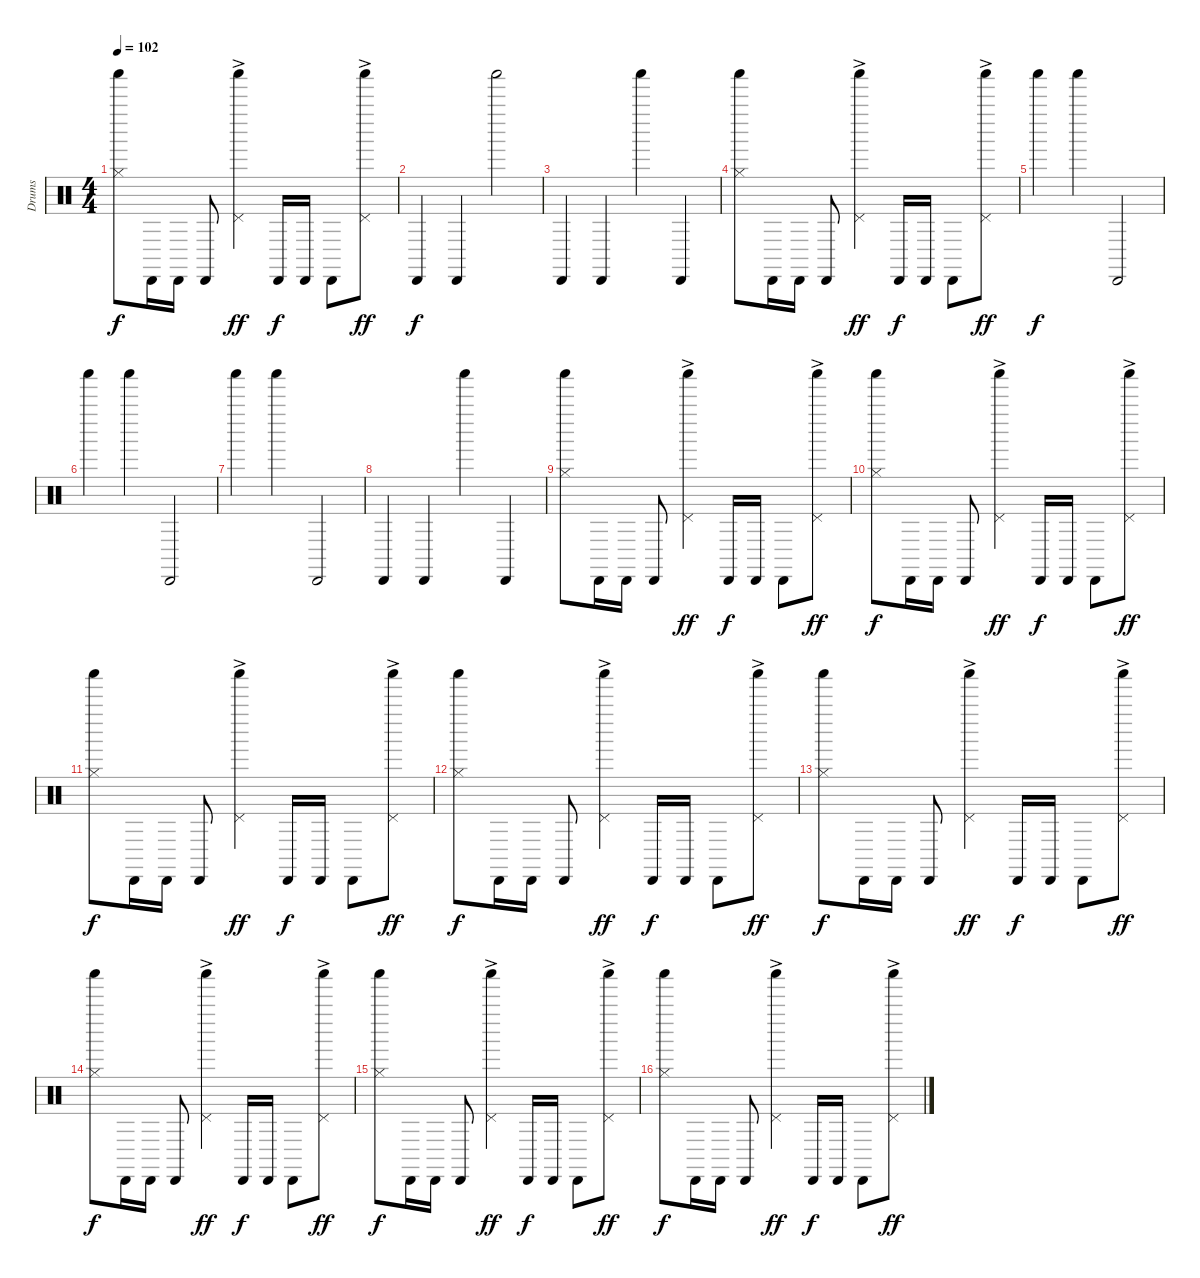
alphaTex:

\track ("Drums" "Drums") {instrument percussion}
\staff {score}
\articulation defaults
\ts (4 4)
\tempo 102
\clef neutral
\ks c
("Shaker (hit)" "Hi-Hat (closed)").8{dy f} "Cabasa (hit)".16 "Cabasa (hit)".16 "Cabasa (hit)".8 ("Shaker (hit)" "Pedal Hi-Hat (hit)"{ac}).4{dy ff} "Cabasa (hit)".16{dy f} "Cabasa (hit)".16 "Cabasa (hit)".8 ("Shaker (hit)" "Pedal Hi-Hat (hit)"{ac}).8{dy ff} |
"Cabasa (hit)".4{dy f} "Cabasa (hit)".4 "Shaker (hit)".2 |
"Cabasa (hit)".4 "Cabasa (hit)".4 "Shaker (hit)".4 "Cabasa (hit)".4 |
("Shaker (hit)" "Hi-Hat (closed)").8 "Cabasa (hit)".16 "Cabasa (hit)".16 "Cabasa (hit)".8 ("Shaker (hit)" "Pedal Hi-Hat (hit)"{ac}).4{dy ff} "Cabasa (hit)".16{dy f} "Cabasa (hit)".16 "Cabasa (hit)".8 ("Shaker (hit)" "Pedal Hi-Hat (hit)"{ac}).8{dy ff} |
"Shaker (hit)".4{dy f} "Shaker (hit)".4 "Cabasa (hit)".2 |
"Shaker (hit)".4 "Shaker (hit)".4 "Cabasa (hit)".2 |
"Shaker (hit)".4 "Shaker (hit)".4 "Cabasa (hit)".2 |
"Cabasa (hit)".4 "Cabasa (hit)".4 "Shaker (hit)".4 "Cabasa (hit)".4 |
("Shaker (hit)" "Hi-Hat (closed)").8 "Cabasa (hit)".16 "Cabasa (hit)".16 "Cabasa (hit)".8 ("Shaker (hit)" "Pedal Hi-Hat (hit)"{ac}).4{dy ff} "Cabasa (hit)".16{dy f} "Cabasa (hit)".16 "Cabasa (hit)".8 ("Shaker (hit)" "Pedal Hi-Hat (hit)"{ac}).8{dy ff} |
("Shaker (hit)" "Hi-Hat (closed)").8{dy f} "Cabasa (hit)".16 "Cabasa (hit)".16 "Cabasa (hit)".8 ("Shaker (hit)" "Pedal Hi-Hat (hit)"{ac}).4{dy ff} "Cabasa (hit)".16{dy f} "Cabasa (hit)".16 "Cabasa (hit)".8 ("Shaker (hit)" "Pedal Hi-Hat (hit)"{ac}).8{dy ff} |
("Shaker (hit)" "Hi-Hat (closed)").8{dy f} "Cabasa (hit)".16 "Cabasa (hit)".16 "Cabasa (hit)".8 ("Shaker (hit)" "Pedal Hi-Hat (hit)"{ac}).4{dy ff} "Cabasa (hit)".16{dy f} "Cabasa (hit)".16 "Cabasa (hit)".8 ("Shaker (hit)" "Pedal Hi-Hat (hit)"{ac}).8{dy ff} |
("Shaker (hit)" "Hi-Hat (closed)").8{dy f} "Cabasa (hit)".16 "Cabasa (hit)".16 "Cabasa (hit)".8 ("Shaker (hit)" "Pedal Hi-Hat (hit)"{ac}).4{dy ff} "Cabasa (hit)".16{dy f} "Cabasa (hit)".16 "Cabasa (hit)".8 ("Shaker (hit)" "Pedal Hi-Hat (hit)"{ac}).8{dy ff} |
("Shaker (hit)" "Hi-Hat (closed)").8{dy f} "Cabasa (hit)".16 "Cabasa (hit)".16 "Cabasa (hit)".8 ("Shaker (hit)" "Pedal Hi-Hat (hit)"{ac}).4{dy ff} "Cabasa (hit)".16{dy f} "Cabasa (hit)".16 "Cabasa (hit)".8 ("Shaker (hit)" "Pedal Hi-Hat (hit)"{ac}).8{dy ff} |
("Shaker (hit)" "Hi-Hat (closed)").8{dy f} "Cabasa (hit)".16 "Cabasa (hit)".16 "Cabasa (hit)".8 ("Shaker (hit)" "Pedal Hi-Hat (hit)"{ac}).4{dy ff} "Cabasa (hit)".16{dy f} "Cabasa (hit)".16 "Cabasa (hit)".8 ("Shaker (hit)" "Pedal Hi-Hat (hit)"{ac}).8{dy ff} |
("Shaker (hit)" "Hi-Hat (closed)").8{dy f} "Cabasa (hit)".16 "Cabasa (hit)".16 "Cabasa (hit)".8 ("Shaker (hit)" "Pedal Hi-Hat (hit)"{ac}).4{dy ff} "Cabasa (hit)".16{dy f} "Cabasa (hit)".16 "Cabasa (hit)".8 ("Shaker (hit)" "Pedal Hi-Hat (hit)"{ac}).8{dy ff} |
("Shaker (hit)" "Hi-Hat (closed)").8{dy f} "Cabasa (hit)".16 "Cabasa (hit)".16 "Cabasa (hit)".8 ("Shaker (hit)" "Pedal Hi-Hat (hit)"{ac}).4{dy ff} "Cabasa (hit)".16{dy f} "Cabasa (hit)".16 "Cabasa (hit)".8 ("Shaker (hit)" "Pedal Hi-Hat (hit)"{ac}).8{dy ff}
